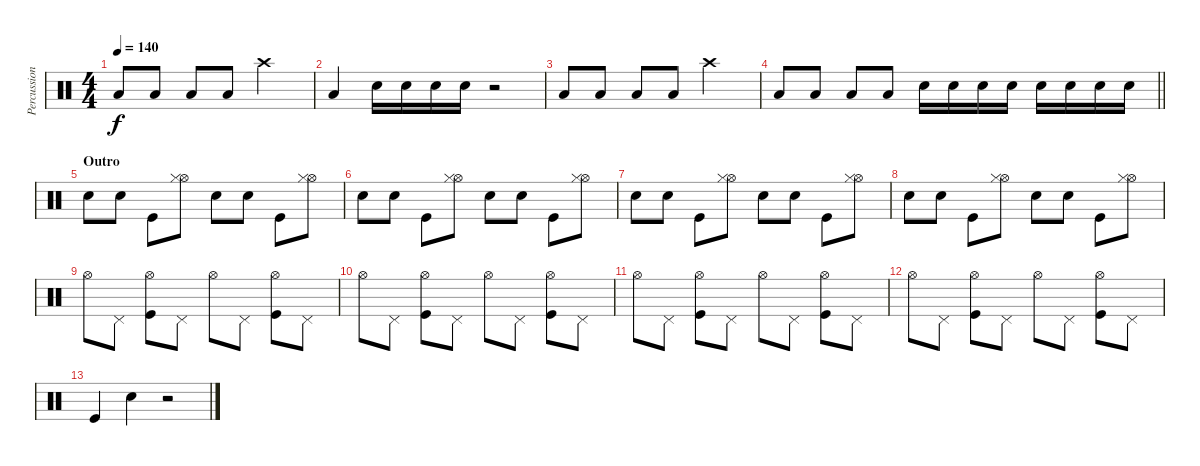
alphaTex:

\track ("Percussion" "Percussion") {instrument percussion}
\staff {score}
\articulation defaults
\ts (4 4)
\tempo 140
\clef neutral
\ks c "Low Tom (hit)".8{dy f} "Low Tom (hit)".8 "Low Tom (hit)".8 "Low Tom (hit)".8 "Crash high (hit)".2
|
"Low Tom (hit)".4 "Snare (hit) 2".16 "Snare (hit) 2".16 "Snare (hit) 2".16 "Snare (hit) 2".16 r.2 |
"Low Tom (hit)".8 "Low Tom (hit)".8 "Low Tom (hit)".8 "Low Tom (hit)".8 "Crash high (hit)".2 |
\barLineRight lightlight "Low Tom (hit)".8 "Low Tom (hit)".8 "Low Tom (hit)".8 "Low Tom (hit)".8 "Snare (hit) 2".16 "Snare (hit) 2".16 "Snare (hit) 2".16 "Snare (hit) 2".16 "Snare (hit) 2".16 "Snare (hit) 2".16 "Snare (hit) 2".16 "Snare (hit) 2".16
|
\section ("" "Outro")
"Snare (hit) 2".8 "Snare (hit) 2".8 "Kick (hit)".8 ("Hi-Hat (open)" "Hi-Hat (closed)").8 "Snare (hit) 2".8 "Snare (hit) 2".8 "Kick (hit)".8 ("Hi-Hat (open)" "Hi-Hat (closed)").8 |
"Snare (hit) 2".8 "Snare (hit) 2".8 "Kick (hit)".8 ("Hi-Hat (open)" "Hi-Hat (closed)").8 "Snare (hit) 2".8 "Snare (hit) 2".8 "Kick (hit)".8 ("Hi-Hat (open)" "Hi-Hat (closed)").8 |
"Snare (hit) 2".8 "Snare (hit) 2".8 "Kick (hit)".8 ("Hi-Hat (open)" "Hi-Hat (closed)").8 "Snare (hit) 2".8 "Snare (hit) 2".8 "Kick (hit)".8 ("Hi-Hat (open)" "Hi-Hat (closed)").8 |
"Snare (hit) 2".8 "Snare (hit) 2".8 "Kick (hit)".8 ("Hi-Hat (open)" "Hi-Hat (closed)").8 "Snare (hit) 2".8 "Snare (hit) 2".8 "Kick (hit)".8 ("Hi-Hat (open)" "Hi-Hat (closed)").8 |
"Hi-Hat (open)".8 "Pedal Hi-Hat (hit)".8 ("Hi-Hat (open)" "Kick (hit)").8 "Pedal Hi-Hat (hit)".8 "Hi-Hat (open)".8 "Pedal Hi-Hat (hit)".8 ("Hi-Hat (open)" "Kick (hit)").8 "Pedal Hi-Hat (hit)".8 |
"Hi-Hat (open)".8 "Pedal Hi-Hat (hit)".8 ("Hi-Hat (open)" "Kick (hit)").8 "Pedal Hi-Hat (hit)".8 "Hi-Hat (open)".8 "Pedal Hi-Hat (hit)".8 ("Hi-Hat (open)" "Kick (hit)").8 "Pedal Hi-Hat (hit)".8 |
"Hi-Hat (open)".8 "Pedal Hi-Hat (hit)".8 ("Hi-Hat (open)" "Kick (hit)").8 "Pedal Hi-Hat (hit)".8 "Hi-Hat (open)".8 "Pedal Hi-Hat (hit)".8 ("Hi-Hat (open)" "Kick (hit)").8 "Pedal Hi-Hat (hit)".8 |
"Hi-Hat (open)".8 "Pedal Hi-Hat (hit)".8 ("Hi-Hat (open)" "Kick (hit)").8 "Pedal Hi-Hat (hit)".8 "Hi-Hat (open)".8 "Pedal Hi-Hat (hit)".8 ("Hi-Hat (open)" "Kick (hit)").8 "Pedal Hi-Hat (hit)".8 |
"Kick (hit)".4 "Snare (hit) 2".4 r.2
